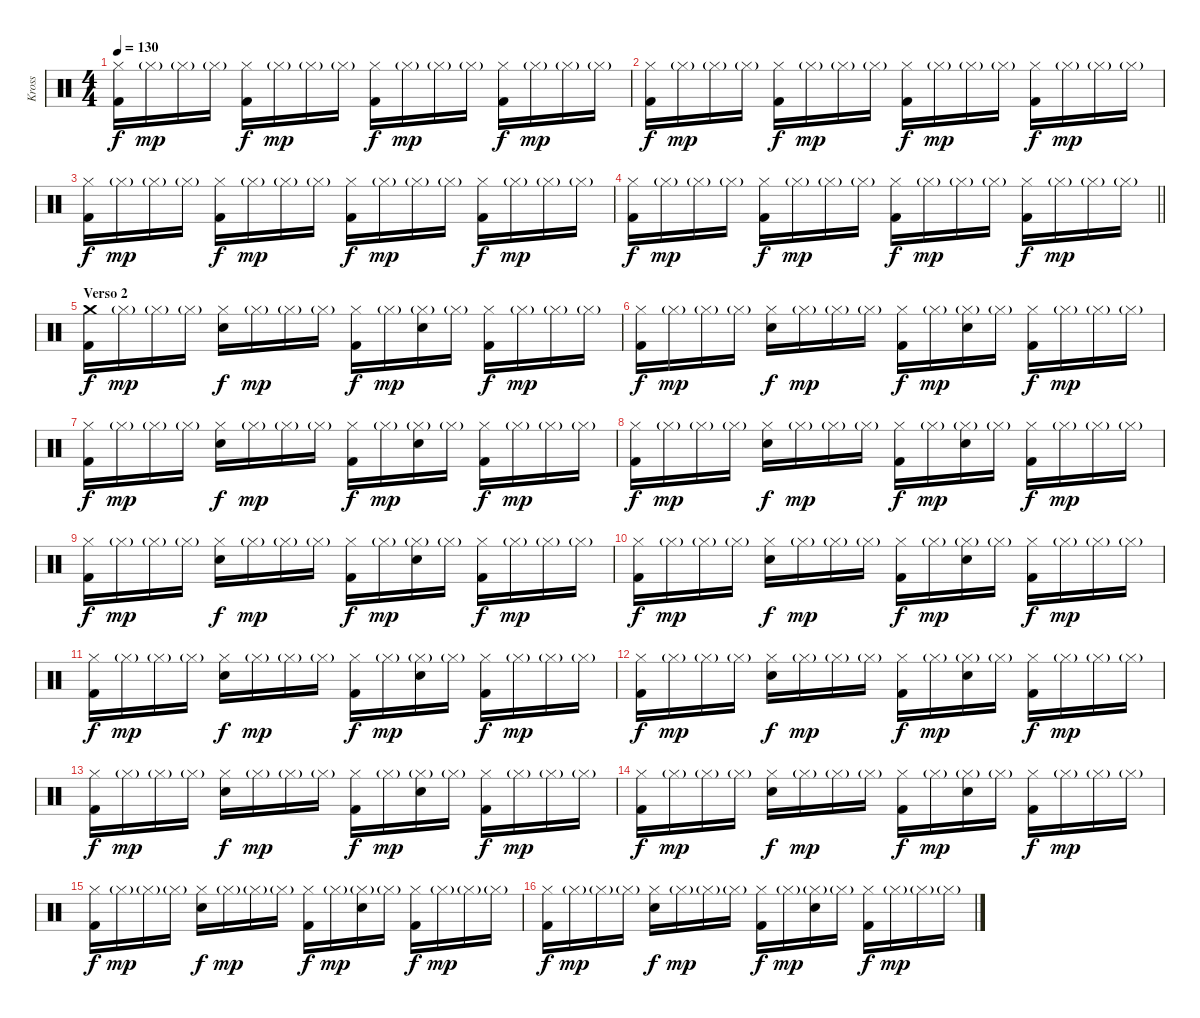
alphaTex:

\track ("Kross" "Kross") {instrument percussion}
\staff {score}
\articulation defaults
\ts (4 4)
\tempo 130
\clef neutral
\ks c
("Hi-Hat (closed)" "Kick (hit) 2").16{dy f} "Hi-Hat (closed)"{g}.16{dy mp} "Hi-Hat (closed)"{g}.16 "Hi-Hat (closed)"{g}.16 ("Hi-Hat (closed)" "Kick (hit) 2").16{dy f} "Hi-Hat (closed)"{g}.16{dy mp} "Hi-Hat (closed)"{g}.16 "Hi-Hat (closed)"{g}.16 ("Hi-Hat (closed)" "Kick (hit) 2").16{dy f} "Hi-Hat (closed)"{g}.16{dy mp} "Hi-Hat (closed)"{g}.16 "Hi-Hat (closed)"{g}.16 ("Hi-Hat (closed)" "Kick (hit) 2").16{dy f} "Hi-Hat (closed)"{g}.16{dy mp} "Hi-Hat (closed)"{g}.16 "Hi-Hat (closed)"{g}.16 |
("Hi-Hat (closed)" "Kick (hit) 2").16{dy f} "Hi-Hat (closed)"{g}.16{dy mp} "Hi-Hat (closed)"{g}.16 "Hi-Hat (closed)"{g}.16 ("Hi-Hat (closed)" "Kick (hit) 2").16{dy f} "Hi-Hat (closed)"{g}.16{dy mp} "Hi-Hat (closed)"{g}.16 "Hi-Hat (closed)"{g}.16 ("Hi-Hat (closed)" "Kick (hit) 2").16{dy f} "Hi-Hat (closed)"{g}.16{dy mp} "Hi-Hat (closed)"{g}.16 "Hi-Hat (closed)"{g}.16 ("Hi-Hat (closed)" "Kick (hit) 2").16{dy f} "Hi-Hat (closed)"{g}.16{dy mp} "Hi-Hat (closed)"{g}.16 "Hi-Hat (closed)"{g}.16 |
("Hi-Hat (closed)" "Kick (hit) 2").16{dy f} "Hi-Hat (closed)"{g}.16{dy mp} "Hi-Hat (closed)"{g}.16 "Hi-Hat (closed)"{g}.16 ("Hi-Hat (closed)" "Kick (hit) 2").16{dy f} "Hi-Hat (closed)"{g}.16{dy mp} "Hi-Hat (closed)"{g}.16 "Hi-Hat (closed)"{g}.16 ("Hi-Hat (closed)" "Kick (hit) 2").16{dy f} "Hi-Hat (closed)"{g}.16{dy mp} "Hi-Hat (closed)"{g}.16 "Hi-Hat (closed)"{g}.16 ("Hi-Hat (closed)" "Kick (hit) 2").16{dy f} "Hi-Hat (closed)"{g}.16{dy mp} "Hi-Hat (closed)"{g}.16 "Hi-Hat (closed)"{g}.16 |
\barLineRight lightlight
("Hi-Hat (closed)" "Kick (hit) 2").16{dy f} "Hi-Hat (closed)"{g}.16{dy mp} "Hi-Hat (closed)"{g}.16 "Hi-Hat (closed)"{g}.16 ("Hi-Hat (closed)" "Kick (hit) 2").16{dy f} "Hi-Hat (closed)"{g}.16{dy mp} "Hi-Hat (closed)"{g}.16 "Hi-Hat (closed)"{g}.16 ("Hi-Hat (closed)" "Kick (hit) 2").16{dy f} "Hi-Hat (closed)"{g}.16{dy mp} "Hi-Hat (closed)"{g}.16 "Hi-Hat (closed)"{g}.16 ("Hi-Hat (closed)" "Kick (hit) 2").16{dy f} "Hi-Hat (closed)"{g}.16{dy mp} "Hi-Hat (closed)"{g}.16 "Hi-Hat (closed)"{g}.16 |
\section ("" "Verso 2")
("Crash medium (hit)" "Kick (hit) 2").16{dy f} "Hi-Hat (closed)"{g}.16{dy mp} "Hi-Hat (closed)"{g}.16 "Hi-Hat (closed)"{g}.16 ("Hi-Hat (closed)" "Electric Snare (hit)").16{dy f} "Hi-Hat (closed)"{g}.16{dy mp} "Hi-Hat (closed)"{g}.16 "Hi-Hat (closed)"{g}.16 ("Hi-Hat (closed)" "Kick (hit) 2").16{dy f} "Hi-Hat (closed)"{g}.16{dy mp} ("Hi-Hat (closed)"{g} "Electric Snare (hit)").16 "Hi-Hat (closed)"{g}.16 ("Hi-Hat (closed)" "Kick (hit) 2").16{dy f} "Hi-Hat (closed)"{g}.16{dy mp} "Hi-Hat (closed)"{g}.16 "Hi-Hat (closed)"{g}.16 |
("Hi-Hat (closed)" "Kick (hit) 2").16{dy f} "Hi-Hat (closed)"{g}.16{dy mp} "Hi-Hat (closed)"{g}.16 "Hi-Hat (closed)"{g}.16 ("Hi-Hat (closed)" "Electric Snare (hit)").16{dy f} "Hi-Hat (closed)"{g}.16{dy mp} "Hi-Hat (closed)"{g}.16 "Hi-Hat (closed)"{g}.16 ("Hi-Hat (closed)" "Kick (hit) 2").16{dy f} "Hi-Hat (closed)"{g}.16{dy mp} ("Hi-Hat (closed)"{g} "Electric Snare (hit)").16 "Hi-Hat (closed)"{g}.16 ("Hi-Hat (closed)" "Kick (hit) 2").16{dy f} "Hi-Hat (closed)"{g}.16{dy mp} "Hi-Hat (closed)"{g}.16 "Hi-Hat (closed)"{g}.16 |
("Hi-Hat (closed)" "Kick (hit) 2").16{dy f} "Hi-Hat (closed)"{g}.16{dy mp} "Hi-Hat (closed)"{g}.16 "Hi-Hat (closed)"{g}.16 ("Hi-Hat (closed)" "Electric Snare (hit)").16{dy f} "Hi-Hat (closed)"{g}.16{dy mp} "Hi-Hat (closed)"{g}.16 "Hi-Hat (closed)"{g}.16 ("Hi-Hat (closed)" "Kick (hit) 2").16{dy f} "Hi-Hat (closed)"{g}.16{dy mp} ("Hi-Hat (closed)"{g} "Electric Snare (hit)").16 "Hi-Hat (closed)"{g}.16 ("Hi-Hat (closed)" "Kick (hit) 2").16{dy f} "Hi-Hat (closed)"{g}.16{dy mp} "Hi-Hat (closed)"{g}.16 "Hi-Hat (closed)"{g}.16 |
("Hi-Hat (closed)" "Kick (hit) 2").16{dy f} "Hi-Hat (closed)"{g}.16{dy mp} "Hi-Hat (closed)"{g}.16 "Hi-Hat (closed)"{g}.16 ("Hi-Hat (closed)" "Electric Snare (hit)").16{dy f} "Hi-Hat (closed)"{g}.16{dy mp} "Hi-Hat (closed)"{g}.16 "Hi-Hat (closed)"{g}.16 ("Hi-Hat (closed)" "Kick (hit) 2").16{dy f} "Hi-Hat (closed)"{g}.16{dy mp} ("Hi-Hat (closed)"{g} "Electric Snare (hit)").16 "Hi-Hat (closed)"{g}.16 ("Hi-Hat (closed)" "Kick (hit) 2").16{dy f} "Hi-Hat (closed)"{g}.16{dy mp} "Hi-Hat (closed)"{g}.16 "Hi-Hat (closed)"{g}.16 |
("Hi-Hat (closed)" "Kick (hit) 2").16{dy f} "Hi-Hat (closed)"{g}.16{dy mp} "Hi-Hat (closed)"{g}.16 "Hi-Hat (closed)"{g}.16 ("Hi-Hat (closed)" "Electric Snare (hit)").16{dy f} "Hi-Hat (closed)"{g}.16{dy mp} "Hi-Hat (closed)"{g}.16 "Hi-Hat (closed)"{g}.16 ("Hi-Hat (closed)" "Kick (hit) 2").16{dy f} "Hi-Hat (closed)"{g}.16{dy mp} ("Hi-Hat (closed)"{g} "Electric Snare (hit)").16 "Hi-Hat (closed)"{g}.16 ("Hi-Hat (closed)" "Kick (hit) 2").16{dy f} "Hi-Hat (closed)"{g}.16{dy mp} "Hi-Hat (closed)"{g}.16 "Hi-Hat (closed)"{g}.16 |
("Hi-Hat (closed)" "Kick (hit) 2").16{dy f} "Hi-Hat (closed)"{g}.16{dy mp} "Hi-Hat (closed)"{g}.16 "Hi-Hat (closed)"{g}.16 ("Hi-Hat (closed)" "Electric Snare (hit)").16{dy f} "Hi-Hat (closed)"{g}.16{dy mp} "Hi-Hat (closed)"{g}.16 "Hi-Hat (closed)"{g}.16 ("Hi-Hat (closed)" "Kick (hit) 2").16{dy f} "Hi-Hat (closed)"{g}.16{dy mp} ("Hi-Hat (closed)"{g} "Electric Snare (hit)").16 "Hi-Hat (closed)"{g}.16 ("Hi-Hat (closed)" "Kick (hit) 2").16{dy f} "Hi-Hat (closed)"{g}.16{dy mp} "Hi-Hat (closed)"{g}.16 "Hi-Hat (closed)"{g}.16 |
("Hi-Hat (closed)" "Kick (hit) 2").16{dy f} "Hi-Hat (closed)"{g}.16{dy mp} "Hi-Hat (closed)"{g}.16 "Hi-Hat (closed)"{g}.16 ("Hi-Hat (closed)" "Electric Snare (hit)").16{dy f} "Hi-Hat (closed)"{g}.16{dy mp} "Hi-Hat (closed)"{g}.16 "Hi-Hat (closed)"{g}.16 ("Hi-Hat (closed)" "Kick (hit) 2").16{dy f} "Hi-Hat (closed)"{g}.16{dy mp} ("Hi-Hat (closed)"{g} "Electric Snare (hit)").16 "Hi-Hat (closed)"{g}.16 ("Hi-Hat (closed)" "Kick (hit) 2").16{dy f} "Hi-Hat (closed)"{g}.16{dy mp} "Hi-Hat (closed)"{g}.16 "Hi-Hat (closed)"{g}.16 |
("Hi-Hat (closed)" "Kick (hit) 2").16{dy f} "Hi-Hat (closed)"{g}.16{dy mp} "Hi-Hat (closed)"{g}.16 "Hi-Hat (closed)"{g}.16 ("Hi-Hat (closed)" "Electric Snare (hit)").16{dy f} "Hi-Hat (closed)"{g}.16{dy mp} "Hi-Hat (closed)"{g}.16 "Hi-Hat (closed)"{g}.16 ("Hi-Hat (closed)" "Kick (hit) 2").16{dy f} "Hi-Hat (closed)"{g}.16{dy mp} ("Hi-Hat (closed)"{g} "Electric Snare (hit)").16 "Hi-Hat (closed)"{g}.16 ("Hi-Hat (closed)" "Kick (hit) 2").16{dy f} "Hi-Hat (closed)"{g}.16{dy mp} "Hi-Hat (closed)"{g}.16 "Hi-Hat (closed)"{g}.16 |
("Hi-Hat (closed)" "Kick (hit) 2").16{dy f} "Hi-Hat (closed)"{g}.16{dy mp} "Hi-Hat (closed)"{g}.16 "Hi-Hat (closed)"{g}.16 ("Hi-Hat (closed)" "Electric Snare (hit)").16{dy f} "Hi-Hat (closed)"{g}.16{dy mp} "Hi-Hat (closed)"{g}.16 "Hi-Hat (closed)"{g}.16 ("Hi-Hat (closed)" "Kick (hit) 2").16{dy f} "Hi-Hat (closed)"{g}.16{dy mp} ("Hi-Hat (closed)"{g} "Electric Snare (hit)").16 "Hi-Hat (closed)"{g}.16 ("Hi-Hat (closed)" "Kick (hit) 2").16{dy f} "Hi-Hat (closed)"{g}.16{dy mp} "Hi-Hat (closed)"{g}.16 "Hi-Hat (closed)"{g}.16 |
("Hi-Hat (closed)" "Kick (hit) 2").16{dy f} "Hi-Hat (closed)"{g}.16{dy mp} "Hi-Hat (closed)"{g}.16 "Hi-Hat (closed)"{g}.16 ("Hi-Hat (closed)" "Electric Snare (hit)").16{dy f} "Hi-Hat (closed)"{g}.16{dy mp} "Hi-Hat (closed)"{g}.16 "Hi-Hat (closed)"{g}.16 ("Hi-Hat (closed)" "Kick (hit) 2").16{dy f} "Hi-Hat (closed)"{g}.16{dy mp} ("Hi-Hat (closed)"{g} "Electric Snare (hit)").16 "Hi-Hat (closed)"{g}.16 ("Hi-Hat (closed)" "Kick (hit) 2").16{dy f} "Hi-Hat (closed)"{g}.16{dy mp} "Hi-Hat (closed)"{g}.16 "Hi-Hat (closed)"{g}.16 |
("Hi-Hat (closed)" "Kick (hit) 2").16{dy f} "Hi-Hat (closed)"{g}.16{dy mp} "Hi-Hat (closed)"{g}.16 "Hi-Hat (closed)"{g}.16 ("Hi-Hat (closed)" "Electric Snare (hit)").16{dy f} "Hi-Hat (closed)"{g}.16{dy mp} "Hi-Hat (closed)"{g}.16 "Hi-Hat (closed)"{g}.16 ("Hi-Hat (closed)" "Kick (hit) 2").16{dy f} "Hi-Hat (closed)"{g}.16{dy mp} ("Hi-Hat (closed)"{g} "Electric Snare (hit)").16 "Hi-Hat (closed)"{g}.16 ("Hi-Hat (closed)" "Kick (hit) 2").16{dy f} "Hi-Hat (closed)"{g}.16{dy mp} "Hi-Hat (closed)"{g}.16 "Hi-Hat (closed)"{g}.16 |
("Hi-Hat (closed)" "Kick (hit) 2").16{dy f} "Hi-Hat (closed)"{g}.16{dy mp} "Hi-Hat (closed)"{g}.16 "Hi-Hat (closed)"{g}.16 ("Hi-Hat (closed)" "Electric Snare (hit)").16{dy f} "Hi-Hat (closed)"{g}.16{dy mp} "Hi-Hat (closed)"{g}.16 "Hi-Hat (closed)"{g}.16 ("Hi-Hat (closed)" "Kick (hit) 2").16{dy f} "Hi-Hat (closed)"{g}.16{dy mp} ("Hi-Hat (closed)"{g} "Electric Snare (hit)").16 "Hi-Hat (closed)"{g}.16 ("Hi-Hat (closed)" "Kick (hit) 2").16{dy f} "Hi-Hat (closed)"{g}.16{dy mp} "Hi-Hat (closed)"{g}.16 "Hi-Hat (closed)"{g}.16
